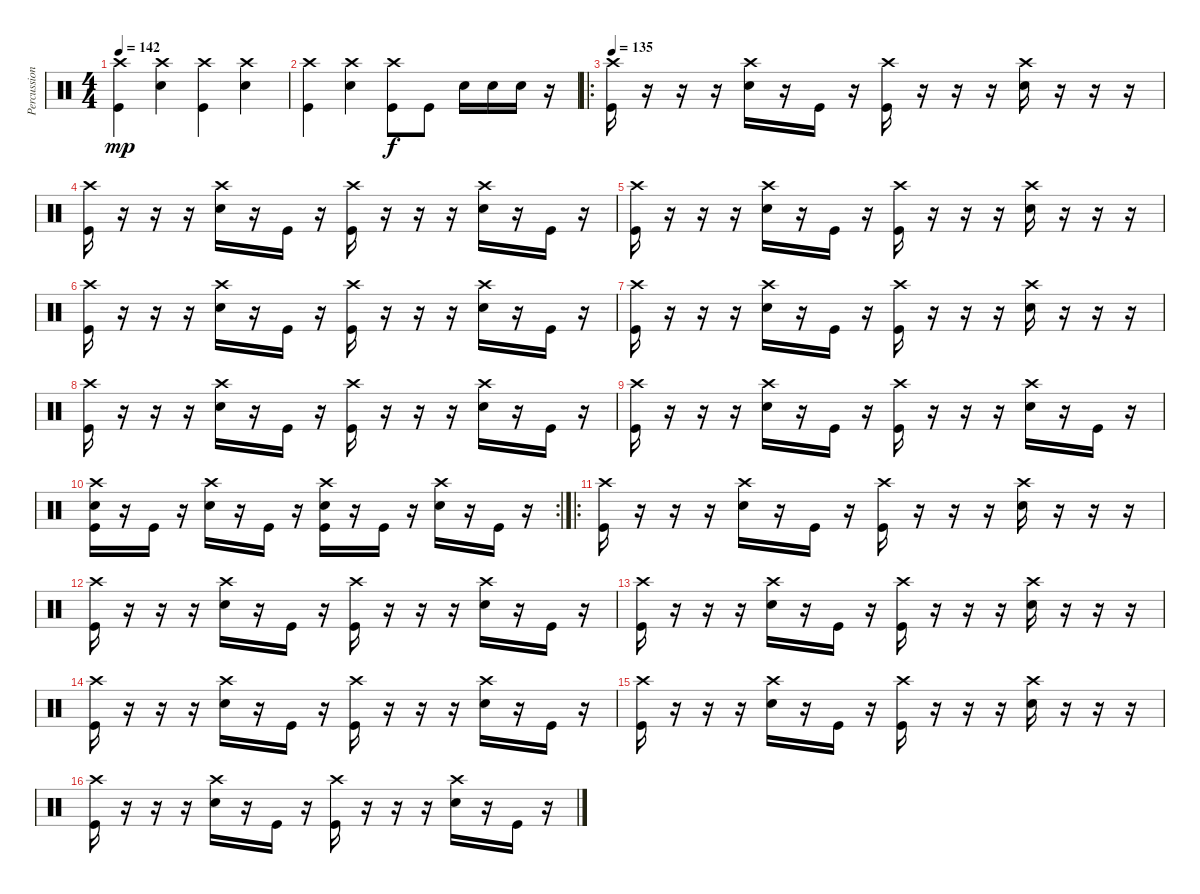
\track ("Percussion" "Percussion") {instrument percussion}
\staff {score}
\articulation defaults
\ts (4 4)
\tempo 142
\clef neutral
\ks c
("Crash high (hit)" "Kick (hit)").4{dy mp} ("Crash high (hit)" "Snare (hit) 2").4 ("Crash high (hit)" "Kick (hit)").4 ("Crash high (hit)" "Snare (hit) 2").4 |
("Crash high (hit)" "Kick (hit)").4 ("Crash high (hit)" "Snare (hit) 2").4 ("Crash high (hit)" "Kick (hit)").8{dy f} "Kick (hit)".8 "Snare (hit) 2".16 "Snare (hit) 2".16 "Snare (hit) 2".16 r.16 |
\ro
\tempo 135
("Crash high (hit)" "Kick (hit)").16 r.16 r.16 r.16 ("Crash high (hit)" "Snare (hit) 2").16 r.16 "Kick (hit)".16 r.16 ("Crash high (hit)" "Kick (hit)").16 r.16 r.16 r.16 ("Crash high (hit)" "Snare (hit) 2").16 r.16 r.16 r.16 |
("Crash high (hit)" "Kick (hit)").16 r.16 r.16 r.16 ("Crash high (hit)" "Snare (hit) 2").16 r.16 "Kick (hit)".16 r.16 ("Crash high (hit)" "Kick (hit)").16 r.16 r.16 r.16 ("Crash high (hit)" "Snare (hit) 2").16 r.16 "Kick (hit)".16 r.16 |
("Crash high (hit)" "Kick (hit)").16 r.16 r.16 r.16 ("Crash high (hit)" "Snare (hit) 2").16 r.16 "Kick (hit)".16 r.16 ("Crash high (hit)" "Kick (hit)").16 r.16 r.16 r.16 ("Crash high (hit)" "Snare (hit) 2").16 r.16 r.16 r.16 |
("Crash high (hit)" "Kick (hit)").16 r.16 r.16 r.16 ("Crash high (hit)" "Snare (hit) 2").16 r.16 "Kick (hit)".16 r.16 ("Crash high (hit)" "Kick (hit)").16 r.16 r.16 r.16 ("Crash high (hit)" "Snare (hit) 2").16 r.16 "Kick (hit)".16 r.16 |
("Crash high (hit)" "Kick (hit)").16 r.16 r.16 r.16 ("Crash high (hit)" "Snare (hit) 2").16 r.16 "Kick (hit)".16 r.16 ("Crash high (hit)" "Kick (hit)").16 r.16 r.16 r.16 ("Crash high (hit)" "Snare (hit) 2").16 r.16 r.16 r.16 |
("Crash high (hit)" "Kick (hit)").16 r.16 r.16 r.16 ("Crash high (hit)" "Snare (hit) 2").16 r.16 "Kick (hit)".16 r.16 ("Crash high (hit)" "Kick (hit)").16 r.16 r.16 r.16 ("Crash high (hit)" "Snare (hit) 2").16 r.16 "Kick (hit)".16 r.16 |
("Crash high (hit)" "Kick (hit)").16 r.16 r.16 r.16 ("Crash high (hit)" "Snare (hit) 2").16 r.16 "Kick (hit)".16 r.16 ("Crash high (hit)" "Kick (hit)").16 r.16 r.16 r.16 ("Crash high (hit)" "Snare (hit) 2").16 r.16 "Kick (hit)".16 r.16 |
\rc 2
("Crash high (hit)" "Snare (hit) 2" "Kick (hit)").16 r.16 "Kick (hit)".16 r.16 ("Crash high (hit)" "Snare (hit) 2").16 r.16 "Kick (hit)".16 r.16 ("Crash high (hit)" "Snare (hit) 2" "Kick (hit)").16 r.16 "Kick (hit)".16 r.16 ("Crash high (hit)" "Snare (hit) 2").16 r.16 "Kick (hit)".16 r.16 |
\ro
("Crash high (hit)" "Kick (hit)").16 r.16 r.16 r.16 ("Crash high (hit)" "Snare (hit) 2").16 r.16 "Kick (hit)".16 r.16 ("Crash high (hit)" "Kick (hit)").16 r.16 r.16 r.16 ("Crash high (hit)" "Snare (hit) 2").16 r.16 r.16 r.16 |
("Crash high (hit)" "Kick (hit)").16 r.16 r.16 r.16 ("Crash high (hit)" "Snare (hit) 2").16 r.16 "Kick (hit)".16 r.16 ("Crash high (hit)" "Kick (hit)").16 r.16 r.16 r.16 ("Crash high (hit)" "Snare (hit) 2").16 r.16 "Kick (hit)".16 r.16 |
("Crash high (hit)" "Kick (hit)").16 r.16 r.16 r.16 ("Crash high (hit)" "Snare (hit) 2").16 r.16 "Kick (hit)".16 r.16 ("Crash high (hit)" "Kick (hit)").16 r.16 r.16 r.16 ("Crash high (hit)" "Snare (hit) 2").16 r.16 r.16 r.16 |
("Crash high (hit)" "Kick (hit)").16 r.16 r.16 r.16 ("Crash high (hit)" "Snare (hit) 2").16 r.16 "Kick (hit)".16 r.16 ("Crash high (hit)" "Kick (hit)").16 r.16 r.16 r.16 ("Crash high (hit)" "Snare (hit) 2").16 r.16 "Kick (hit)".16 r.16 |
("Crash high (hit)" "Kick (hit)").16 r.16 r.16 r.16 ("Crash high (hit)" "Snare (hit) 2").16 r.16 "Kick (hit)".16 r.16 ("Crash high (hit)" "Kick (hit)").16 r.16 r.16 r.16 ("Crash high (hit)" "Snare (hit) 2").16 r.16 r.16 r.16 |
("Crash high (hit)" "Kick (hit)").16 r.16 r.16 r.16 ("Crash high (hit)" "Snare (hit) 2").16 r.16 "Kick (hit)".16 r.16 ("Crash high (hit)" "Kick (hit)").16 r.16 r.16 r.16 ("Crash high (hit)" "Snare (hit) 2").16 r.16 "Kick (hit)".16 r.16
